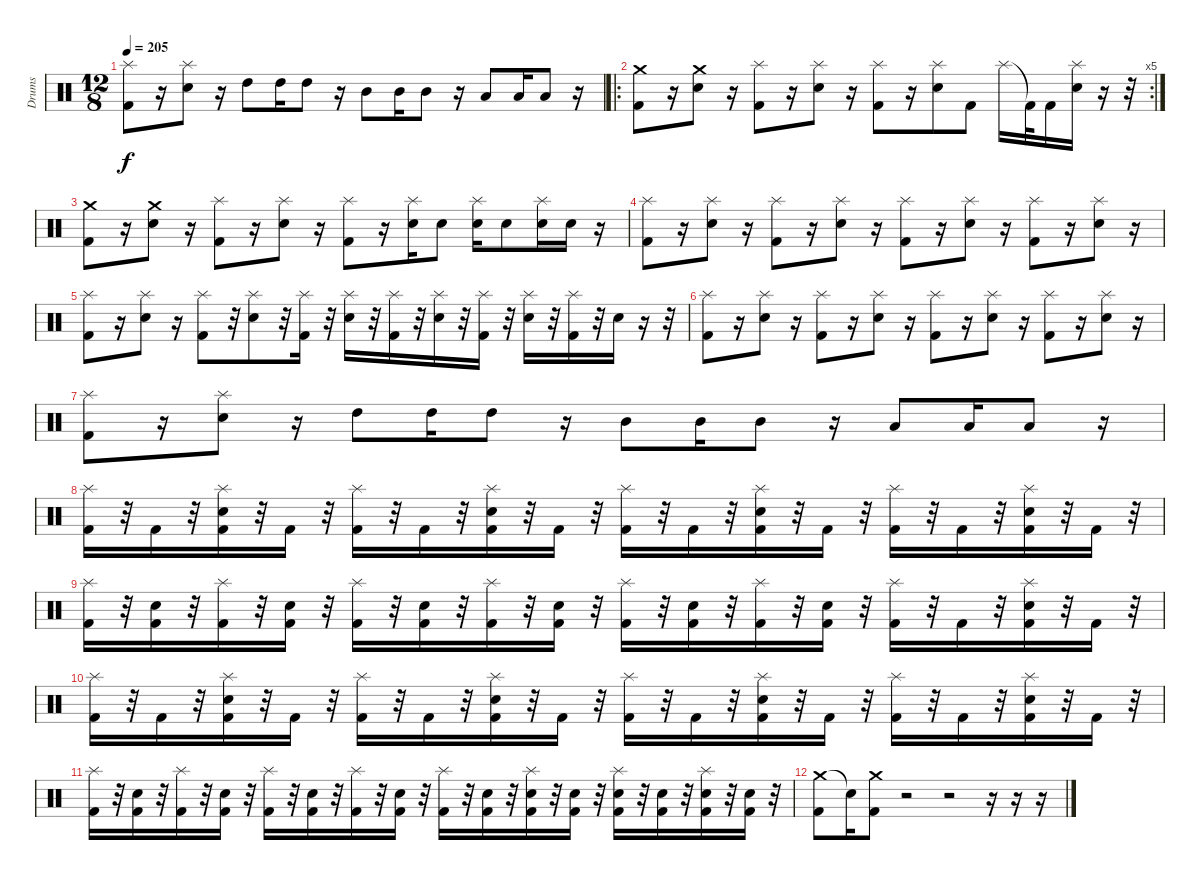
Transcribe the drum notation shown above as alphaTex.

\track ("Drums" "Drums") {instrument percussion}
\staff {score}
\articulation defaults
\ts (12 8)
\tempo 205
\clef neutral
\ks c
("Splash (hit)" "Kick (hit) 2").8{dy f} r.16 ("Splash (hit)" "Electric Snare (hit)").8 r.16 "High Tom (hit)".8 "High Tom (hit)".16 "High Tom (hit)".8 r.16 "Mid Tom (hit)".8 "Mid Tom (hit)".16 "Mid Tom (hit)".8 r.16 "Low Tom (hit)".8 "Low Tom (hit)".16 "Low Tom (hit)".8 r.16 |
\ro
\rc 5
("Crash medium (hit)" "Kick (hit) 2").8 r.16 ("Crash medium (hit)" "Electric Snare (hit)").8 r.16 ("Splash (hit)" "Kick (hit) 2").8 r.16 ("Splash (hit)" "Electric Snare (hit)").8 r.16 ("Splash (hit)" "Kick (hit) 2").8 r.16 ("Splash (hit)" "Electric Snare (hit)").8 "Kick (hit) 2".8 "Splash (hit)".16 "Kick (hit) 2"{t}.32 "Kick (hit) 2".16 ("Splash (hit)" "Electric Snare (hit)").16 r.16 r.32 |
("Crash medium (hit)" "Kick (hit) 2").8 r.16 ("Crash medium (hit)" "Electric Snare (hit)").8 r.16 ("Splash (hit)" "Kick (hit) 2").8 r.16 ("Splash (hit)" "Electric Snare (hit)").8 r.16 ("Splash (hit)" "Kick (hit) 2").8 r.16 ("Splash (hit)" "Electric Snare (hit)").16 "Electric Snare (hit)".8 ("Splash (hit)" "Electric Snare (hit)").16 "Electric Snare (hit)".8 ("Splash (hit)" "Electric Snare (hit)").16 "Electric Snare (hit)".16 r.16 |
("Splash (hit)" "Kick (hit) 2").8 r.16 ("Splash (hit)" "Electric Snare (hit)").8 r.16 ("Splash (hit)" "Kick (hit) 2").8 r.16 ("Splash (hit)" "Electric Snare (hit)").8 r.16 ("Splash (hit)" "Kick (hit) 2").8 r.16 ("Splash (hit)" "Electric Snare (hit)").8 r.16 ("Splash (hit)" "Kick (hit) 2").8 r.16 ("Splash (hit)" "Electric Snare (hit)").8 r.16 |
("Splash (hit)" "Kick (hit) 2").8 r.16 ("Splash (hit)" "Electric Snare (hit)").8 r.16 ("Splash (hit)" "Kick (hit) 2").8 r.32 ("Splash (hit)" "Electric Snare (hit)").8 r.32 ("Splash (hit)" "Kick (hit) 2").16 r.32 ("Splash (hit)" "Electric Snare (hit)").16 r.32 ("Splash (hit)" "Kick (hit) 2").16 r.32 ("Splash (hit)" "Electric Snare (hit)").16 r.32 ("Splash (hit)" "Kick (hit) 2").16 r.32 ("Splash (hit)" "Electric Snare (hit)").16 r.32 ("Splash (hit)" "Kick (hit) 2").16 r.32 "Electric Snare (hit)".16 r.16 r.32 |
("Splash (hit)" "Kick (hit) 2").8 r.16 ("Splash (hit)" "Electric Snare (hit)").8 r.16 ("Splash (hit)" "Kick (hit) 2").8 r.16 ("Splash (hit)" "Electric Snare (hit)").8 r.16 ("Splash (hit)" "Kick (hit) 2").8 r.16 ("Splash (hit)" "Electric Snare (hit)").8 r.16 ("Splash (hit)" "Kick (hit) 2").8 r.16 ("Splash (hit)" "Electric Snare (hit)").8 r.16 |
("Splash (hit)" "Kick (hit) 2").8 r.16 ("Splash (hit)" "Electric Snare (hit)").8 r.16 "High Tom (hit)".8 "High Tom (hit)".16 "High Tom (hit)".8 r.16 "Mid Tom (hit)".8 "Mid Tom (hit)".16 "Mid Tom (hit)".8 r.16 "Low Tom (hit)".8 "Low Tom (hit)".16 "Low Tom (hit)".8 r.16 |
("Splash (hit)" "Kick (hit) 2").16 r.32 "Kick (hit) 2".16 r.32 ("Splash (hit)" "Electric Snare (hit)" "Kick (hit) 2").16 r.32 "Kick (hit) 2".16 r.32 ("Splash (hit)" "Kick (hit) 2").16 r.32 "Kick (hit) 2".16 r.32 ("Splash (hit)" "Electric Snare (hit)" "Kick (hit) 2").16 r.32 "Kick (hit) 2".16 r.32 ("Splash (hit)" "Kick (hit) 2").16 r.32 "Kick (hit) 2".16 r.32 ("Splash (hit)" "Electric Snare (hit)" "Kick (hit) 2").16 r.32 "Kick (hit) 2".16 r.32 ("Splash (hit)" "Kick (hit) 2").16 r.32 "Kick (hit) 2".16 r.32 ("Splash (hit)" "Electric Snare (hit)" "Kick (hit) 2").16 r.32 "Kick (hit) 2".16 r.32 |
("Splash (hit)" "Kick (hit) 2").16 r.32 ("Electric Snare (hit)" "Kick (hit) 2").16 r.32 ("Splash (hit)" "Kick (hit) 2").16 r.32 ("Electric Snare (hit)" "Kick (hit) 2").16 r.32 ("Splash (hit)" "Kick (hit) 2").16 r.32 ("Electric Snare (hit)" "Kick (hit) 2").16 r.32 ("Splash (hit)" "Kick (hit) 2").16 r.32 ("Electric Snare (hit)" "Kick (hit) 2").16 r.32 ("Splash (hit)" "Kick (hit) 2").16 r.32 ("Electric Snare (hit)" "Kick (hit) 2").16 r.32 ("Splash (hit)" "Kick (hit) 2").16 r.32 ("Electric Snare (hit)" "Kick (hit) 2").16 r.32 ("Splash (hit)" "Kick (hit) 2").16 r.32 "Kick (hit) 2".16 r.32 ("Splash (hit)" "Electric Snare (hit)" "Kick (hit) 2").16 r.32 "Kick (hit) 2".16 r.32 |
("Splash (hit)" "Kick (hit) 2").16 r.32 "Kick (hit) 2".16 r.32 ("Splash (hit)" "Electric Snare (hit)" "Kick (hit) 2").16 r.32 "Kick (hit) 2".16 r.32 ("Splash (hit)" "Kick (hit) 2").16 r.32 "Kick (hit) 2".16 r.32 ("Splash (hit)" "Electric Snare (hit)" "Kick (hit) 2").16 r.32 "Kick (hit) 2".16 r.32 ("Splash (hit)" "Kick (hit) 2").16 r.32 "Kick (hit) 2".16 r.32 ("Splash (hit)" "Electric Snare (hit)" "Kick (hit) 2").16 r.32 "Kick (hit) 2".16 r.32 ("Splash (hit)" "Kick (hit) 2").16 r.32 "Kick (hit) 2".16 r.32 ("Splash (hit)" "Electric Snare (hit)" "Kick (hit) 2").16 r.32 "Kick (hit) 2".16 r.32 |
("Splash (hit)" "Kick (hit) 2").16 r.32 ("Electric Snare (hit)" "Kick (hit) 2").16 r.32 ("Splash (hit)" "Kick (hit) 2").16 r.32 ("Electric Snare (hit)" "Kick (hit) 2").16 r.32 ("Splash (hit)" "Kick (hit) 2").16 r.32 ("Electric Snare (hit)" "Kick (hit) 2").16 r.32 ("Splash (hit)" "Kick (hit) 2").16 r.32 ("Electric Snare (hit)" "Kick (hit) 2").16 r.32 ("Splash (hit)" "Kick (hit) 2").16 r.32 ("Electric Snare (hit)" "Kick (hit) 2").16 r.32 ("Splash (hit)" "Electric Snare (hit)" "Kick (hit) 2").16 r.32 ("Electric Snare (hit)" "Kick (hit) 2").16 r.32 ("Splash (hit)" "Electric Snare (hit)" "Kick (hit) 2").16 r.32 ("Electric Snare (hit)" "Kick (hit) 2").16 r.32 ("Splash (hit)" "Electric Snare (hit)" "Kick (hit) 2").16 r.32 ("Electric Snare (hit)" "Kick (hit) 2").16 r.32 |
("Crash medium (hit)" "Kick (hit) 2").8 "Snare (hit)"{t}.16 ("Crash medium (hit)" "Kick (hit) 2").8 r.2 r.2 r.16 r.16 r.16
